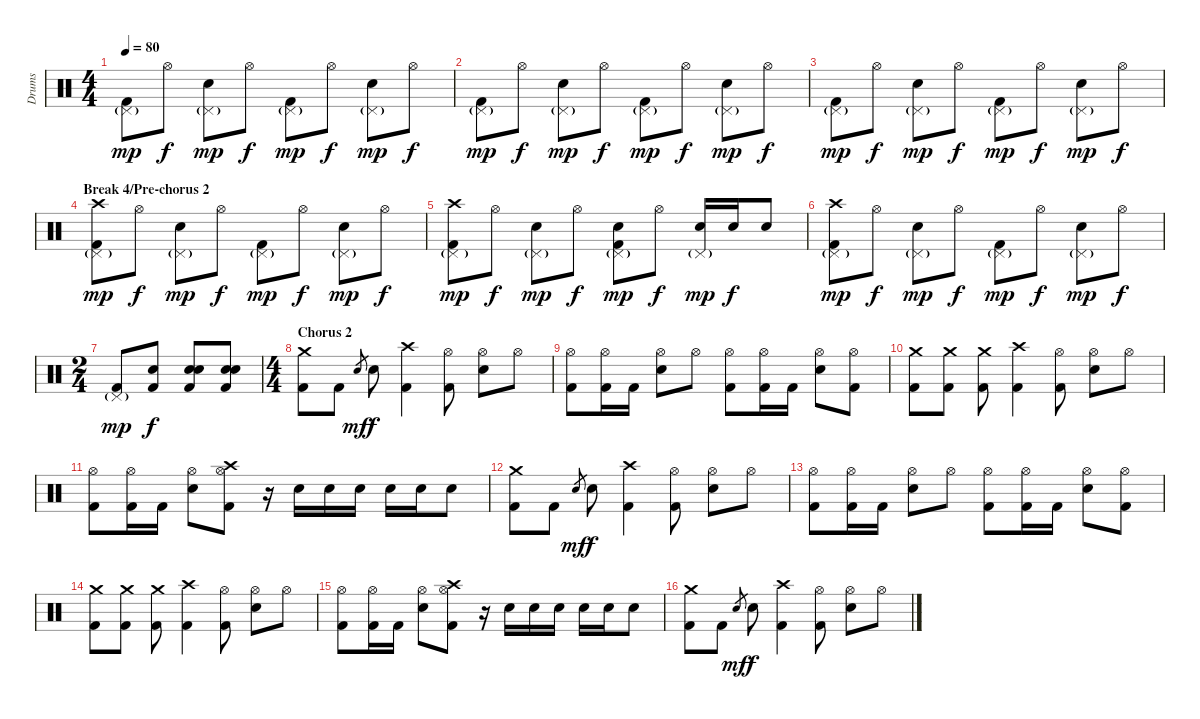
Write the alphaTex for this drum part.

\track ("Drums" "Drums") {instrument percussion}
\staff {score}
\articulation defaults
\ts (4 4)
\tempo 80
\clef neutral
\ks c
("Pedal Hi-Hat (hit)"{g} "Kick (hit) 2").8{dy mp} "Hi-Hat (open)".8{dy f} ("Pedal Hi-Hat (hit)"{g} "Electric Snare (hit)").8{dy mp} "Hi-Hat (open)".8{dy f} ("Pedal Hi-Hat (hit)"{g} "Kick (hit) 2").8{dy mp} "Hi-Hat (open)".8{dy f} ("Pedal Hi-Hat (hit)"{g} "Electric Snare (hit)").8{dy mp} "Hi-Hat (open)".8{dy f} |
("Pedal Hi-Hat (hit)"{g} "Kick (hit) 2").8{dy mp} "Hi-Hat (open)".8{dy f} ("Pedal Hi-Hat (hit)"{g} "Electric Snare (hit)").8{dy mp} "Hi-Hat (open)".8{dy f} ("Pedal Hi-Hat (hit)"{g} "Kick (hit) 2").8{dy mp} "Hi-Hat (open)".8{dy f} ("Pedal Hi-Hat (hit)"{g} "Electric Snare (hit)").8{dy mp} "Hi-Hat (open)".8{dy f} |
("Pedal Hi-Hat (hit)"{g} "Kick (hit) 2").8{dy mp} "Hi-Hat (open)".8{dy f} ("Pedal Hi-Hat (hit)"{g} "Electric Snare (hit)").8{dy mp} "Hi-Hat (open)".8{dy f} ("Pedal Hi-Hat (hit)"{g} "Kick (hit) 2").8{dy mp} "Hi-Hat (open)".8{dy f} ("Pedal Hi-Hat (hit)"{g} "Electric Snare (hit)").8{dy mp} "Hi-Hat (open)".8{dy f} |
\section ("" "Break 4/Pre-chorus 2")
("Pedal Hi-Hat (hit)"{g} "Crash high (hit)" "Kick (hit) 2").8{dy mp} "Hi-Hat (open)".8{dy f} ("Pedal Hi-Hat (hit)"{g} "Electric Snare (hit)").8{dy mp} "Hi-Hat (open)".8{dy f} ("Pedal Hi-Hat (hit)"{g} "Kick (hit) 2").8{dy mp} "Hi-Hat (open)".8{dy f} ("Pedal Hi-Hat (hit)"{g} "Electric Snare (hit)").8{dy mp} "Hi-Hat (open)".8{dy f} |
("Pedal Hi-Hat (hit)"{g} "Crash high (hit)" "Kick (hit) 2").8{dy mp} "Hi-Hat (open)".8{dy f} ("Pedal Hi-Hat (hit)"{g} "Electric Snare (hit)").8{dy mp} "Hi-Hat (open)".8{dy f} ("Pedal Hi-Hat (hit)"{g} "Electric Snare (hit)" "Kick (hit) 2").8{dy mp} "Hi-Hat (open)".8{dy f} ("Pedal Hi-Hat (hit)"{g} "Electric Snare (hit)").16{dy mp} "Electric Snare (hit)".16{dy f} "Electric Snare (hit)".8 |
("Pedal Hi-Hat (hit)"{g} "Crash high (hit)" "Kick (hit) 2").8{dy mp} "Hi-Hat (open)".8{dy f} ("Pedal Hi-Hat (hit)"{g} "Electric Snare (hit)").8{dy mp} "Hi-Hat (open)".8{dy f} ("Pedal Hi-Hat (hit)"{g} "Kick (hit) 2").8{dy mp} "Hi-Hat (open)".8{dy f} ("Pedal Hi-Hat (hit)"{g} "Electric Snare (hit)").8{dy mp} "Hi-Hat (open)".8{dy f} |
\ts (2 4)
("Pedal Hi-Hat (hit)"{g} "Kick (hit) 2").8{dy mp} ("Electric Snare (hit)" "Kick (hit) 2").8{dy f} ("Snare (hit) 2" "Electric Snare (hit)" "Kick (hit) 2").8 ("Snare (hit) 2" "Electric Snare (hit)" "Kick (hit) 2").8 |
\ts (4 4)
\section ("" "Chorus 2")
("Crash medium (hit)" "Kick (hit) 2").8 "Kick (hit) 2".8 "Electric Snare (hit)".8{gr dy mf} "Electric Snare (hit)".8{dy f} ("Crash high (hit)" "Kick (hit) 2").4 ("Hi-Hat (open)" "Kick (hit) 2").8 ("Hi-Hat (open)" "Electric Snare (hit)").8 "Hi-Hat (open)".8 |
("Hi-Hat (open)" "Kick (hit) 2").8 ("Hi-Hat (open)" "Kick (hit) 2").16 "Kick (hit) 2".16 ("Hi-Hat (open)" "Electric Snare (hit)").8 "Hi-Hat (open)".8 ("Hi-Hat (open)" "Kick (hit) 2").8 ("Hi-Hat (open)" "Kick (hit) 2").16 "Kick (hit) 2".16 ("Hi-Hat (open)" "Electric Snare (hit)").8 ("Hi-Hat (open)" "Kick (hit) 2").8 |
("Crash medium (hit)" "Kick (hit) 2").8 ("Crash medium (hit)" "Kick (hit) 2").8 ("Crash medium (hit)" "Kick (hit) 2").8 ("Crash high (hit)" "Kick (hit) 2").4 ("Hi-Hat (open)" "Kick (hit) 2").8 ("Hi-Hat (open)" "Electric Snare (hit)").8 "Hi-Hat (open)".8 |
("Hi-Hat (open)" "Kick (hit) 2").8 ("Hi-Hat (open)" "Kick (hit) 2").16 "Kick (hit) 2".16 ("Hi-Hat (open)" "Electric Snare (hit)").8 ("Hi-Hat (open)" "Crash high (hit)" "Kick (hit) 2").8 r.16 "Electric Snare (hit)".16 "Electric Snare (hit)".16 "Electric Snare (hit)".16 "Electric Snare (hit)".16 "Electric Snare (hit)".16 "Electric Snare (hit)".8 |
("Crash medium (hit)" "Kick (hit) 2").8 "Kick (hit) 2".8 "Electric Snare (hit)".8{gr dy mf} "Electric Snare (hit)".8{dy f} ("Crash high (hit)" "Kick (hit) 2").4 ("Hi-Hat (open)" "Kick (hit) 2").8 ("Hi-Hat (open)" "Electric Snare (hit)").8 "Hi-Hat (open)".8 |
("Hi-Hat (open)" "Kick (hit) 2").8 ("Hi-Hat (open)" "Kick (hit) 2").16 "Kick (hit) 2".16 ("Hi-Hat (open)" "Electric Snare (hit)").8 "Hi-Hat (open)".8 ("Hi-Hat (open)" "Kick (hit) 2").8 ("Hi-Hat (open)" "Kick (hit) 2").16 "Kick (hit) 2".16 ("Hi-Hat (open)" "Electric Snare (hit)").8 ("Hi-Hat (open)" "Kick (hit) 2").8 |
("Crash medium (hit)" "Kick (hit) 2").8 ("Crash medium (hit)" "Kick (hit) 2").8 ("Crash medium (hit)" "Kick (hit) 2").8 ("Crash high (hit)" "Kick (hit) 2").4 ("Hi-Hat (open)" "Kick (hit) 2").8 ("Hi-Hat (open)" "Electric Snare (hit)").8 "Hi-Hat (open)".8 |
("Hi-Hat (open)" "Kick (hit) 2").8 ("Hi-Hat (open)" "Kick (hit) 2").16 "Kick (hit) 2".16 ("Hi-Hat (open)" "Electric Snare (hit)").8 ("Hi-Hat (open)" "Crash high (hit)" "Kick (hit) 2").8 r.16 "Electric Snare (hit)".16 "Electric Snare (hit)".16 "Electric Snare (hit)".16 "Electric Snare (hit)".16 "Electric Snare (hit)".16 "Electric Snare (hit)".8 |
("Crash medium (hit)" "Kick (hit) 2").8 "Kick (hit) 2".8 "Electric Snare (hit)".8{gr dy mf} "Electric Snare (hit)".8{dy f} ("Crash high (hit)" "Kick (hit) 2").4 ("Hi-Hat (open)" "Kick (hit) 2").8 ("Hi-Hat (open)" "Electric Snare (hit)").8 "Hi-Hat (open)".8
